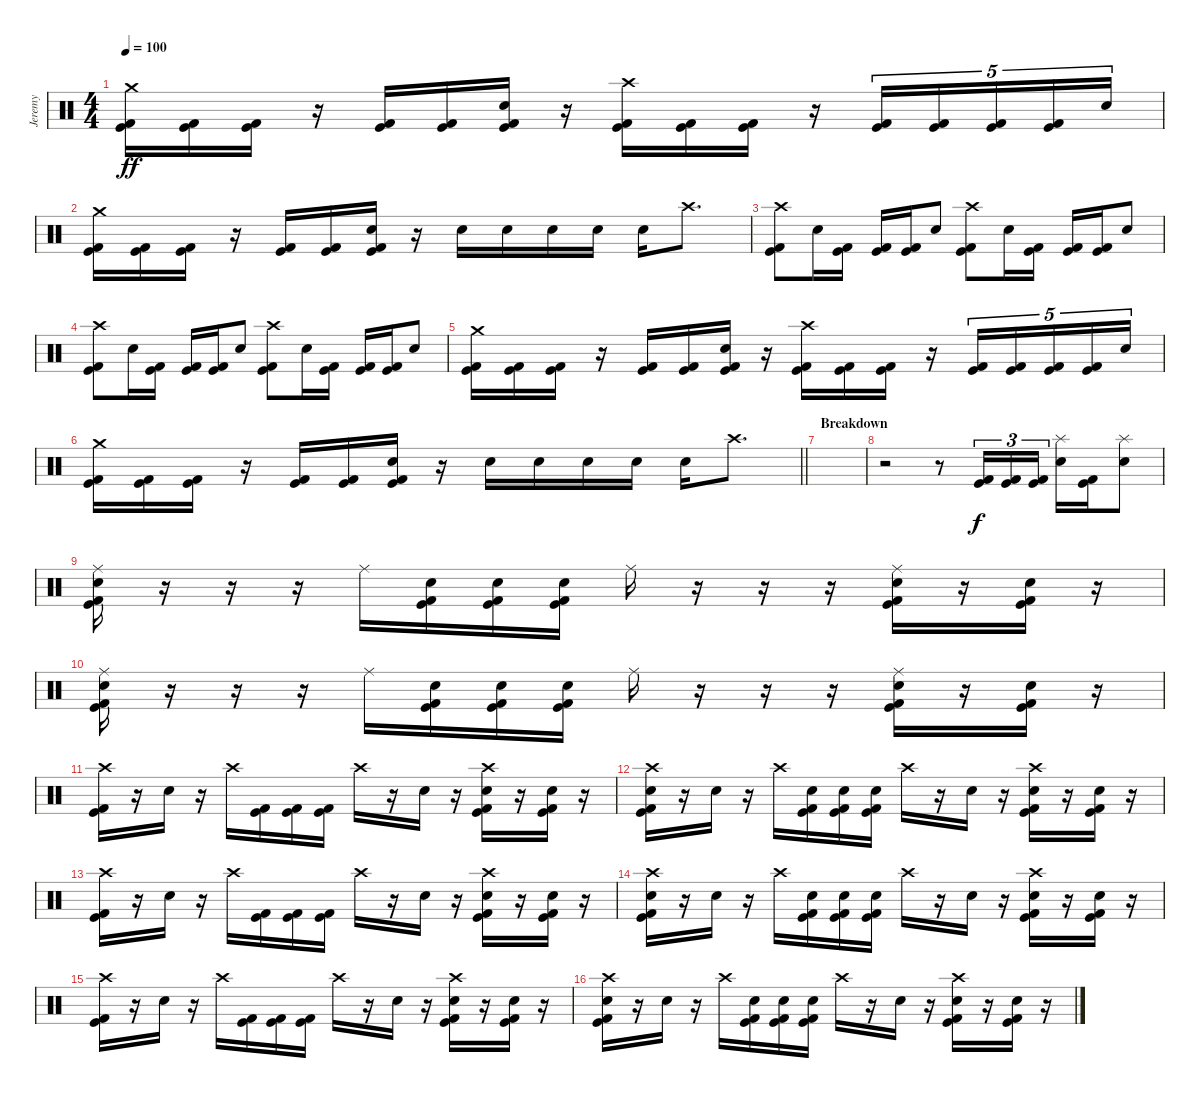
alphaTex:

\track ("Jeremy" "Jeremy") {instrument percussion}
\staff {score}
\articulation defaults
\ts (4 4)
\tempo 100
\clef neutral
\ks c
("Crash medium (hit)" "Kick (hit) 2" "Kick (hit)").16{dy ff} ("Kick (hit) 2" "Kick (hit)").16 ("Kick (hit) 2" "Kick (hit)").16 r.16 ("Kick (hit) 2" "Kick (hit)").16 ("Kick (hit) 2" "Kick (hit)").16 ("Electric Snare (hit)" "Kick (hit) 2" "Kick (hit)").16 r.16 ("Crash high (hit)" "Kick (hit) 2" "Kick (hit)").16 ("Kick (hit) 2" "Kick (hit)").16 ("Kick (hit) 2" "Kick (hit)").16 r.16 ("Kick (hit)" "Kick (hit) 2").16{tu (5 4)} ("Kick (hit)" "Kick (hit) 2").16{tu (5 4)} ("Kick (hit)" "Kick (hit) 2").16{tu (5 4)} ("Kick (hit)" "Kick (hit) 2").16{tu (5 4)} "Electric Snare (hit)".16{tu (5 4)} |
("Crash medium (hit)" "Kick (hit) 2" "Kick (hit)").16 ("Kick (hit) 2" "Kick (hit)").16 ("Kick (hit) 2" "Kick (hit)").16 r.16 ("Kick (hit) 2" "Kick (hit)").16 ("Kick (hit) 2" "Kick (hit)").16 ("Electric Snare (hit)" "Kick (hit) 2" "Kick (hit)").16 r.16 "Electric Snare (hit)".16 "Electric Snare (hit)".16 "Electric Snare (hit)".16 "Electric Snare (hit)".16 "Electric Snare (hit)".16 "Crash high (hit)".8{d} |
("Crash high (hit)" "Kick (hit) 2" "Kick (hit)").8 "Electric Snare (hit)".16 ("Kick (hit) 2" "Kick (hit)").16 ("Kick (hit) 2" "Kick (hit)").16 ("Kick (hit) 2" "Kick (hit)").16 "Electric Snare (hit)".8 ("Crash high (hit)" "Kick (hit) 2" "Kick (hit)").8 "Electric Snare (hit)".16 ("Kick (hit) 2" "Kick (hit)").16 ("Kick (hit) 2" "Kick (hit)").16 ("Kick (hit) 2" "Kick (hit)").16 "Electric Snare (hit)".8 |
("Crash high (hit)" "Kick (hit) 2" "Kick (hit)").8 "Electric Snare (hit)".16 ("Kick (hit) 2" "Kick (hit)").16 ("Kick (hit) 2" "Kick (hit)").16 ("Kick (hit) 2" "Kick (hit)").16 "Electric Snare (hit)".8 ("Crash high (hit)" "Kick (hit) 2" "Kick (hit)").8 "Electric Snare (hit)".16 ("Kick (hit) 2" "Kick (hit)").16 ("Kick (hit) 2" "Kick (hit)").16 ("Kick (hit) 2" "Kick (hit)").16 "Electric Snare (hit)".8 |
("Crash medium (hit)" "Kick (hit) 2" "Kick (hit)").16 ("Kick (hit) 2" "Kick (hit)").16 ("Kick (hit) 2" "Kick (hit)").16 r.16 ("Kick (hit) 2" "Kick (hit)").16 ("Kick (hit) 2" "Kick (hit)").16 ("Electric Snare (hit)" "Kick (hit) 2" "Kick (hit)").16 r.16 ("Crash high (hit)" "Kick (hit) 2" "Kick (hit)").16 ("Kick (hit) 2" "Kick (hit)").16 ("Kick (hit) 2" "Kick (hit)").16 r.16 ("Kick (hit)" "Kick (hit) 2").16{tu (5 4)} ("Kick (hit)" "Kick (hit) 2").16{tu (5 4)} ("Kick (hit)" "Kick (hit) 2").16{tu (5 4)} ("Kick (hit)" "Kick (hit) 2").16{tu (5 4)} "Electric Snare (hit)".16{tu (5 4)} |
\barLineRight lightlight
("Crash medium (hit)" "Kick (hit) 2" "Kick (hit)").16 ("Kick (hit) 2" "Kick (hit)").16 ("Kick (hit) 2" "Kick (hit)").16 r.16 ("Kick (hit) 2" "Kick (hit)").16 ("Kick (hit) 2" "Kick (hit)").16 ("Electric Snare (hit)" "Kick (hit) 2" "Kick (hit)").16 r.16 "Electric Snare (hit)".16 "Electric Snare (hit)".16 "Electric Snare (hit)".16 "Electric Snare (hit)".16 "Electric Snare (hit)".16 "Crash high (hit)".8{d} |
\section ("" "Breakdown")
|
r.2 r.8 ("Kick (hit) 2" "Kick (hit)").16{tu (3 2) dy f} ("Kick (hit) 2" "Kick (hit)").16{tu (3 2)} ("Kick (hit) 2" "Kick (hit)").16{tu (3 2)} ("Splash (hit)" "Electric Snare (hit)").16 ("Kick (hit) 2" "Kick (hit)").16 ("Splash (hit)" "Electric Snare (hit)").8 |
("Ride (middle)" "Electric Snare (hit)" "Kick (hit)" "Kick (hit) 2").16 r.16 r.16 r.16 "Ride (middle)".16 ("Electric Snare (hit)" "Kick (hit) 2" "Kick (hit)").16 ("Electric Snare (hit)" "Kick (hit) 2" "Kick (hit)").16 ("Electric Snare (hit)" "Kick (hit)" "Kick (hit) 2").16 "Ride (middle)".16 r.16 r.16 r.16 ("Ride (middle)" "Electric Snare (hit)" "Kick (hit)" "Kick (hit) 2").16 r.16 ("Electric Snare (hit)" "Kick (hit)" "Kick (hit) 2").16 r.16 |
("Ride (middle)" "Electric Snare (hit)" "Kick (hit)" "Kick (hit) 2").16 r.16 r.16 r.16 "Ride (middle)".16 ("Electric Snare (hit)" "Kick (hit) 2" "Kick (hit)").16 ("Electric Snare (hit)" "Kick (hit) 2" "Kick (hit)").16 ("Electric Snare (hit)" "Kick (hit)" "Kick (hit) 2").16 "Ride (middle)".16 r.16 r.16 r.16 ("Ride (middle)" "Electric Snare (hit)" "Kick (hit)" "Kick (hit) 2").16 r.16 ("Electric Snare (hit)" "Kick (hit)" "Kick (hit) 2").16 r.16 |
("Crash high (hit)" "Kick (hit)" "Kick (hit) 2").16 r.16 "Electric Snare (hit)".16 r.16 "Crash high (hit)".16 ("Kick (hit) 2" "Kick (hit)").16 ("Kick (hit) 2" "Kick (hit)").16 ("Kick (hit)" "Kick (hit) 2").16 "Crash high (hit)".16 r.16 "Electric Snare (hit)".16 r.16 ("Crash high (hit)" "Electric Snare (hit)" "Kick (hit)" "Kick (hit) 2").16 r.16 ("Electric Snare (hit)" "Kick (hit)" "Kick (hit) 2").16 r.16 |
("Crash high (hit)" "Electric Snare (hit)" "Kick (hit)" "Kick (hit) 2").16 r.16 "Electric Snare (hit)".16 r.16 "Crash high (hit)".16 ("Electric Snare (hit)" "Kick (hit) 2" "Kick (hit)").16 ("Electric Snare (hit)" "Kick (hit) 2" "Kick (hit)").16 ("Electric Snare (hit)" "Kick (hit)" "Kick (hit) 2").16 "Crash high (hit)".16 r.16 "Electric Snare (hit)".16 r.16 ("Crash high (hit)" "Electric Snare (hit)" "Kick (hit)" "Kick (hit) 2").16 r.16 ("Electric Snare (hit)" "Kick (hit)" "Kick (hit) 2").16 r.16 |
("Crash high (hit)" "Kick (hit)" "Kick (hit) 2").16 r.16 "Electric Snare (hit)".16 r.16 "Crash high (hit)".16 ("Kick (hit) 2" "Kick (hit)").16 ("Kick (hit) 2" "Kick (hit)").16 ("Kick (hit)" "Kick (hit) 2").16 "Crash high (hit)".16 r.16 "Electric Snare (hit)".16 r.16 ("Crash high (hit)" "Electric Snare (hit)" "Kick (hit)" "Kick (hit) 2").16 r.16 ("Electric Snare (hit)" "Kick (hit)" "Kick (hit) 2").16 r.16 |
("Crash high (hit)" "Electric Snare (hit)" "Kick (hit)" "Kick (hit) 2").16 r.16 "Electric Snare (hit)".16 r.16 "Crash high (hit)".16 ("Electric Snare (hit)" "Kick (hit) 2" "Kick (hit)").16 ("Electric Snare (hit)" "Kick (hit) 2" "Kick (hit)").16 ("Electric Snare (hit)" "Kick (hit)" "Kick (hit) 2").16 "Crash high (hit)".16 r.16 "Electric Snare (hit)".16 r.16 ("Crash high (hit)" "Electric Snare (hit)" "Kick (hit)" "Kick (hit) 2").16 r.16 ("Electric Snare (hit)" "Kick (hit)" "Kick (hit) 2").16 r.16 |
("Crash high (hit)" "Kick (hit)" "Kick (hit) 2").16 r.16 "Electric Snare (hit)".16 r.16 "Crash high (hit)".16 ("Kick (hit) 2" "Kick (hit)").16 ("Kick (hit) 2" "Kick (hit)").16 ("Kick (hit)" "Kick (hit) 2").16 "Crash high (hit)".16 r.16 "Electric Snare (hit)".16 r.16 ("Crash high (hit)" "Electric Snare (hit)" "Kick (hit)" "Kick (hit) 2").16 r.16 ("Electric Snare (hit)" "Kick (hit)" "Kick (hit) 2").16 r.16 |
("Crash high (hit)" "Electric Snare (hit)" "Kick (hit)" "Kick (hit) 2").16 r.16 "Electric Snare (hit)".16 r.16 "Crash high (hit)".16 ("Electric Snare (hit)" "Kick (hit) 2" "Kick (hit)").16 ("Electric Snare (hit)" "Kick (hit) 2" "Kick (hit)").16 ("Electric Snare (hit)" "Kick (hit)" "Kick (hit) 2").16 "Crash high (hit)".16 r.16 "Electric Snare (hit)".16 r.16 ("Crash high (hit)" "Electric Snare (hit)" "Kick (hit)" "Kick (hit) 2").16 r.16 ("Electric Snare (hit)" "Kick (hit)" "Kick (hit) 2").16 r.16
